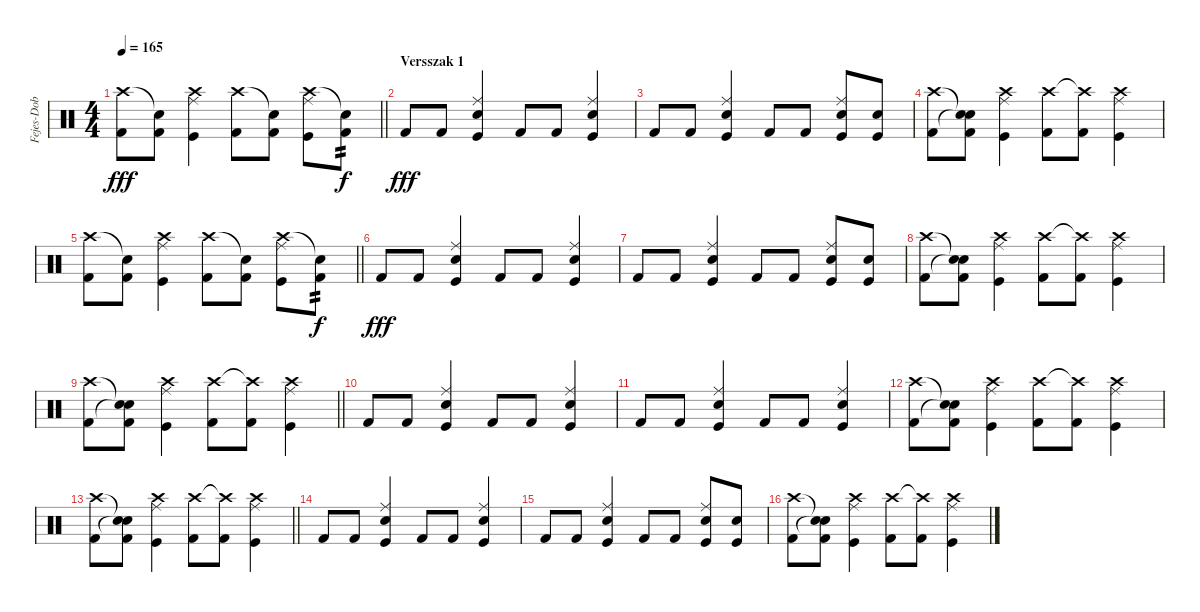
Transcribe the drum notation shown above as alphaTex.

\track ("Fejes-Dob" "Fejes-Dob") {instrument percussion}
\staff {score}
\articulation defaults
\ts (4 4)
\tempo 165
\clef neutral
\barLineRight lightlight
\ks c
("Crash high (hit)" "Kick (hit) 2").8{dy fff} ("Snare (hit)"{t} "Kick (hit) 2").8 ("Crash high (hit)" "Ride (middle)" "Kick (hit)").4 ("Crash high (hit)" "Kick (hit) 2").8 ("Snare (hit)"{t} "Kick (hit) 2").8 ("Crash high (hit)" "Ride (middle)" "Kick (hit)").8 ("Snare (hit)"{t} "Kick (hit) 2").8{tp 2 dy f} |
\section ("" "Versszak 1")
"Kick (hit) 2".8{dy fff} "Kick (hit) 2".8 ("Ride (middle)" "Snare (hit) 2" "Kick (hit)").4 "Kick (hit) 2".8 "Kick (hit) 2".8 ("Ride (middle)" "Snare (hit) 2" "Kick (hit)").4 |
"Kick (hit) 2".8 "Kick (hit) 2".8 ("Ride (middle)" "Snare (hit) 2" "Kick (hit)").4 "Kick (hit) 2".8 "Kick (hit) 2".8 ("Ride (middle)" "Snare (hit) 2" "Kick (hit)").8 ("Snare (hit) 2" "Kick (hit)").8 |
("Crash high (hit)" "Kick (hit) 2").8 ("Snare (hit)"{t} "Snare (hit)"{t} "Kick (hit) 2").8 ("Crash high (hit)" "Ride (middle)" "Kick (hit)").4 ("Crash high (hit)" "Kick (hit) 2").8 ("Crash high (hit)"{t} "Kick (hit) 2").8 ("Crash high (hit)" "Ride (middle)" "Kick (hit)").4 |
\barLineRight lightlight
("Crash high (hit)" "Kick (hit) 2").8 ("Snare (hit)"{t} "Kick (hit) 2").8 ("Crash high (hit)" "Ride (middle)" "Kick (hit)").4 ("Crash high (hit)" "Kick (hit) 2").8 ("Snare (hit)"{t} "Kick (hit) 2").8 ("Crash high (hit)" "Ride (middle)" "Kick (hit)").8 ("Snare (hit)"{t} "Kick (hit) 2").8{tp 2 dy f} |
"Kick (hit) 2".8{dy fff} "Kick (hit) 2".8 ("Ride (middle)" "Snare (hit) 2" "Kick (hit)").4 "Kick (hit) 2".8 "Kick (hit) 2".8 ("Ride (middle)" "Snare (hit) 2" "Kick (hit)").4 |
"Kick (hit) 2".8 "Kick (hit) 2".8 ("Ride (middle)" "Snare (hit) 2" "Kick (hit)").4 "Kick (hit) 2".8 "Kick (hit) 2".8 ("Ride (middle)" "Snare (hit) 2" "Kick (hit)").8 ("Snare (hit) 2" "Kick (hit)").8 |
("Crash high (hit)" "Kick (hit) 2").8 ("Snare (hit)"{t} "Snare (hit)"{t} "Kick (hit) 2").8 ("Crash high (hit)" "Ride (middle)" "Kick (hit)").4 ("Crash high (hit)" "Kick (hit) 2").8 ("Crash high (hit)"{t} "Kick (hit) 2").8 ("Crash high (hit)" "Ride (middle)" "Kick (hit)").4 |
\barLineRight lightlight
("Crash high (hit)" "Kick (hit) 2").8 ("Snare (hit)"{t} "Snare (hit)"{t} "Kick (hit) 2").8 ("Crash high (hit)" "Ride (middle)" "Kick (hit)").4 ("Crash high (hit)" "Kick (hit) 2").8 ("Crash high (hit)"{t} "Kick (hit) 2").8 ("Crash high (hit)" "Ride (middle)" "Kick (hit)").4 |
"Kick (hit) 2".8 "Kick (hit) 2".8 ("Ride (middle)" "Snare (hit) 2" "Kick (hit)").4 "Kick (hit) 2".8 "Kick (hit) 2".8 ("Ride (middle)" "Snare (hit) 2" "Kick (hit)").4 |
"Kick (hit) 2".8 "Kick (hit) 2".8 ("Ride (middle)" "Snare (hit) 2" "Kick (hit)").4 "Kick (hit) 2".8 "Kick (hit) 2".8 ("Ride (middle)" "Snare (hit) 2" "Kick (hit)").4 |
("Crash high (hit)" "Kick (hit) 2").8 ("Snare (hit)"{t} "Snare (hit)"{t} "Kick (hit) 2").8 ("Crash high (hit)" "Ride (middle)" "Kick (hit)").4 ("Crash high (hit)" "Kick (hit) 2").8 ("Crash high (hit)"{t} "Kick (hit) 2").8 ("Crash high (hit)" "Ride (middle)" "Kick (hit)").4 |
\barLineRight lightlight
("Crash high (hit)" "Kick (hit) 2").8 ("Snare (hit)"{t} "Snare (hit)"{t} "Kick (hit) 2").8 ("Crash high (hit)" "Ride (middle)" "Kick (hit)").4 ("Crash high (hit)" "Kick (hit) 2").8 ("Crash high (hit)"{t} "Kick (hit) 2").8 ("Crash high (hit)" "Ride (middle)" "Kick (hit)").4 |
"Kick (hit) 2".8 "Kick (hit) 2".8 ("Ride (middle)" "Snare (hit) 2" "Kick (hit)").4 "Kick (hit) 2".8 "Kick (hit) 2".8 ("Ride (middle)" "Snare (hit) 2" "Kick (hit)").4 |
"Kick (hit) 2".8 "Kick (hit) 2".8 ("Ride (middle)" "Snare (hit) 2" "Kick (hit)").4 "Kick (hit) 2".8 "Kick (hit) 2".8 ("Ride (middle)" "Snare (hit) 2" "Kick (hit)").8 ("Snare (hit) 2" "Kick (hit)").8 |
("Crash high (hit)" "Kick (hit) 2").8 ("Snare (hit)"{t} "Snare (hit)"{t} "Kick (hit) 2").8 ("Crash high (hit)" "Ride (middle)" "Kick (hit)").4 ("Crash high (hit)" "Kick (hit) 2").8 ("Crash high (hit)"{t} "Kick (hit) 2").8 ("Crash high (hit)" "Ride (middle)" "Kick (hit)").4
